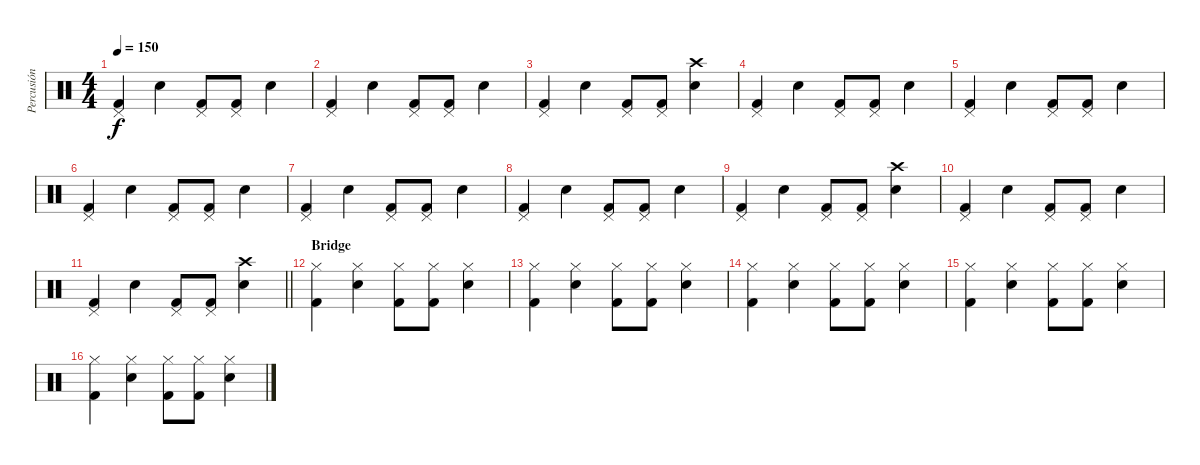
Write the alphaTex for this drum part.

\track ("Percusión" "Percusión") {instrument percussion}
\staff {score}
\articulation defaults
\ts (4 4)
\tempo 150
\clef neutral
\ks c
("Pedal Hi-Hat (hit)" "Kick (hit) 2").4{dy f} "Snare (hit) 2".4 ("Pedal Hi-Hat (hit)" "Kick (hit) 2").8 ("Pedal Hi-Hat (hit)" "Kick (hit) 2").8 "Snare (hit) 2".4 |
("Pedal Hi-Hat (hit)" "Kick (hit) 2").4 "Snare (hit) 2".4 ("Pedal Hi-Hat (hit)" "Kick (hit) 2").8 ("Pedal Hi-Hat (hit)" "Kick (hit) 2").8 "Snare (hit) 2".4 |
("Pedal Hi-Hat (hit)" "Kick (hit) 2").4 "Snare (hit) 2".4 ("Pedal Hi-Hat (hit)" "Kick (hit) 2").8 ("Pedal Hi-Hat (hit)" "Kick (hit) 2").8 ("Crash high (hit)" "Snare (hit) 2").4 |
("Pedal Hi-Hat (hit)" "Kick (hit) 2").4 "Snare (hit) 2".4 ("Pedal Hi-Hat (hit)" "Kick (hit) 2").8 ("Pedal Hi-Hat (hit)" "Kick (hit) 2").8 "Snare (hit) 2".4 |
("Pedal Hi-Hat (hit)" "Kick (hit) 2").4 "Snare (hit) 2".4 ("Pedal Hi-Hat (hit)" "Kick (hit) 2").8 ("Pedal Hi-Hat (hit)" "Kick (hit) 2").8 "Snare (hit) 2".4 |
("Pedal Hi-Hat (hit)" "Kick (hit) 2").4 "Snare (hit) 2".4 ("Pedal Hi-Hat (hit)" "Kick (hit) 2").8 ("Pedal Hi-Hat (hit)" "Kick (hit) 2").8 "Snare (hit) 2".4 |
("Pedal Hi-Hat (hit)" "Kick (hit) 2").4 "Snare (hit) 2".4 ("Pedal Hi-Hat (hit)" "Kick (hit) 2").8 ("Pedal Hi-Hat (hit)" "Kick (hit) 2").8 "Snare (hit) 2".4 |
("Pedal Hi-Hat (hit)" "Kick (hit) 2").4 "Snare (hit) 2".4 ("Pedal Hi-Hat (hit)" "Kick (hit) 2").8 ("Pedal Hi-Hat (hit)" "Kick (hit) 2").8 "Snare (hit) 2".4 |
("Pedal Hi-Hat (hit)" "Kick (hit) 2").4 "Snare (hit) 2".4 ("Pedal Hi-Hat (hit)" "Kick (hit) 2").8 ("Pedal Hi-Hat (hit)" "Kick (hit) 2").8 ("Crash high (hit)" "Snare (hit) 2").4 |
("Pedal Hi-Hat (hit)" "Kick (hit) 2").4 "Snare (hit) 2".4 ("Pedal Hi-Hat (hit)" "Kick (hit) 2").8 ("Pedal Hi-Hat (hit)" "Kick (hit) 2").8 "Snare (hit) 2".4 |
\barLineRight lightlight
("Pedal Hi-Hat (hit)" "Kick (hit) 2").4 "Snare (hit) 2".4 ("Pedal Hi-Hat (hit)" "Kick (hit) 2").8 ("Pedal Hi-Hat (hit)" "Kick (hit) 2").8 ("Crash high (hit)" "Snare (hit) 2").4 |
\section ("" "Bridge")
("Hi-Hat (closed)" "Kick (hit) 2").4 ("Hi-Hat (closed)" "Snare (hit) 2").4 ("Hi-Hat (closed)" "Kick (hit) 2").8 ("Hi-Hat (closed)" "Kick (hit) 2").8 ("Hi-Hat (closed)" "Snare (hit) 2").4 |
("Hi-Hat (closed)" "Kick (hit) 2").4 ("Hi-Hat (closed)" "Snare (hit) 2").4 ("Hi-Hat (closed)" "Kick (hit) 2").8 ("Hi-Hat (closed)" "Kick (hit) 2").8 ("Hi-Hat (closed)" "Snare (hit) 2").4 |
("Hi-Hat (closed)" "Kick (hit) 2").4 ("Hi-Hat (closed)" "Snare (hit) 2").4 ("Hi-Hat (closed)" "Kick (hit) 2").8 ("Hi-Hat (closed)" "Kick (hit) 2").8 ("Hi-Hat (closed)" "Snare (hit) 2").4 |
("Hi-Hat (closed)" "Kick (hit) 2").4 ("Hi-Hat (closed)" "Snare (hit) 2").4 ("Hi-Hat (closed)" "Kick (hit) 2").8 ("Hi-Hat (closed)" "Kick (hit) 2").8 ("Hi-Hat (closed)" "Snare (hit) 2").4 |
("Hi-Hat (closed)" "Kick (hit) 2").4 ("Hi-Hat (closed)" "Snare (hit) 2").4 ("Hi-Hat (closed)" "Kick (hit) 2").8 ("Hi-Hat (closed)" "Kick (hit) 2").8 ("Hi-Hat (closed)" "Snare (hit) 2").4
